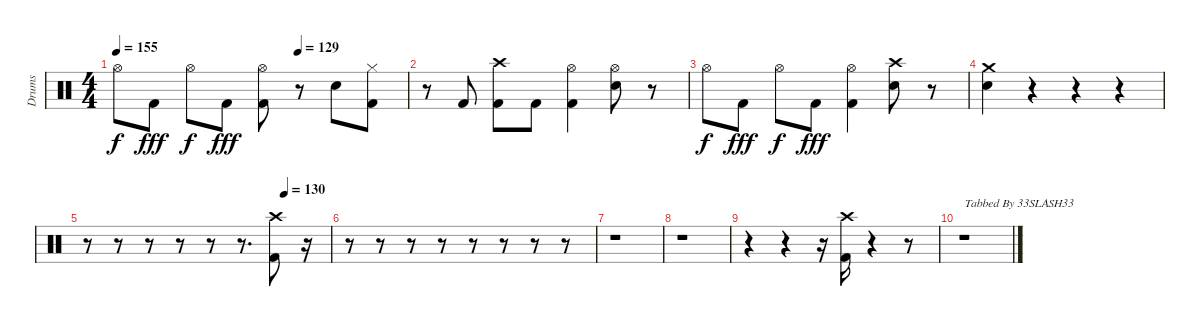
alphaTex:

\track ("Drums" "Drums") {instrument percussion}
\staff {score}
\articulation defaults
\ts (4 4)
\tempo 155
\tempo (129 0.625)
\clef neutral
\ks c "Hi-Hat (open)".8{dy f} "Kick (hit) 2".8{dy fff} "Hi-Hat (open)".8{dy f} "Kick (hit) 2".8{dy fff}
("Hi-Hat (open)" "Kick (hit) 2").8 r.8 "Snare (hit) 2".8 ("Hi-Hat (closed)" "Kick (hit) 2").8 |
r.8 "Kick (hit) 2".8 ("Crash high (hit)" "Kick (hit) 2").8 "Kick (hit) 2".8 ("Hi-Hat (open)" "Kick (hit) 2").4 ("Hi-Hat (open)" "Snare (hit) 2").8 r.8 |
"Hi-Hat (open)".8{dy f} "Kick (hit) 2".8{dy fff} "Hi-Hat (open)".8{dy f} "Kick (hit) 2".8{dy fff} ("Hi-Hat (open)" "Kick (hit) 2").4 ("Crash high (hit)" "Snare (hit) 2").8 r.8 |
("Crash medium (hit)" "Snare (hit) 2").4 r.4 r.4 r.4 |
\tempo (130 0.8125)
r.8 r.8 r.8 r.8 r.8 r.8{d} ("Crash high (hit)" "Kick (hit) 2").8 r.16 |
r.8 r.8 r.8 r.8 r.8 r.8 r.8 r.8 |
r.1 |
r.1 |
r.4 r.4 r.16 ("Crash high (hit)" "Kick (hit) 2").16 r.4 r.8 |
r.1{txt "Tabbed By 33SLASH33"}
